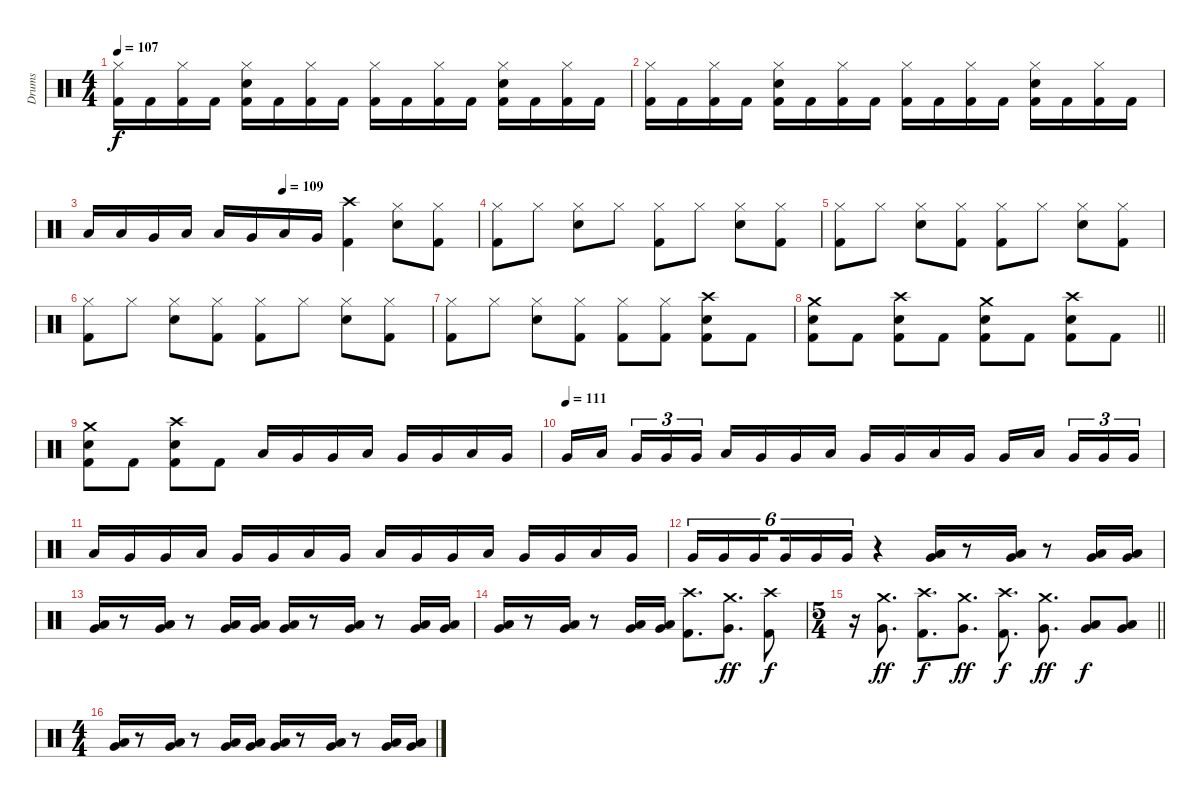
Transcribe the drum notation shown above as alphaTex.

\track ("Drums" "Drums") {instrument percussion}
\staff {score}
\articulation defaults
\ts (4 4)
\tempo 107
\clef neutral
\ks c
("Hi-Hat (closed)" "Kick (hit) 2").16{dy f} "Kick (hit) 2".16 ("Hi-Hat (closed)" "Kick (hit) 2").16 "Kick (hit) 2".16 ("Hi-Hat (closed)" "Snare (hit) 2" "Kick (hit) 2").16 "Kick (hit) 2".16 ("Hi-Hat (closed)" "Kick (hit) 2").16 "Kick (hit) 2".16 ("Hi-Hat (closed)" "Kick (hit) 2").16 "Kick (hit) 2".16 ("Hi-Hat (closed)" "Kick (hit) 2").16 "Kick (hit) 2".16 ("Hi-Hat (closed)" "Snare (hit) 2" "Kick (hit) 2").16 "Kick (hit) 2".16 ("Hi-Hat (closed)" "Kick (hit) 2").16 "Kick (hit) 2".16 |
("Hi-Hat (closed)" "Kick (hit) 2").16 "Kick (hit) 2".16 ("Hi-Hat (closed)" "Kick (hit) 2").16 "Kick (hit) 2".16 ("Hi-Hat (closed)" "Snare (hit) 2" "Kick (hit) 2").16 "Kick (hit) 2".16 ("Hi-Hat (closed)" "Kick (hit) 2").16 "Kick (hit) 2".16 ("Hi-Hat (closed)" "Kick (hit) 2").16 "Kick (hit) 2".16 ("Hi-Hat (closed)" "Kick (hit) 2").16 "Kick (hit) 2".16 ("Hi-Hat (closed)" "Snare (hit) 2" "Kick (hit) 2").16 "Kick (hit) 2".16 ("Hi-Hat (closed)" "Kick (hit) 2").16 "Kick (hit) 2".16 |
\tempo (109 0.5)
"Low Tom (hit)".16 "Low Tom (hit)".16 "Very Low Tom (hit)".16 "Low Tom (hit)".16 "Low Tom (hit)".16 "Very Low Tom (hit)".16 "Low Tom (hit)".16 "Very Low Tom (hit)".16 ("Crash high (hit)" "Kick (hit) 2").4 ("Hi-Hat (closed)" "Snare (hit) 2").8 ("Hi-Hat (closed)" "Kick (hit) 2").8 |
("Hi-Hat (closed)" "Kick (hit) 2").8 "Hi-Hat (closed)".8 ("Hi-Hat (closed)" "Snare (hit) 2").8 "Hi-Hat (closed)".8 ("Hi-Hat (closed)" "Kick (hit) 2").8 "Hi-Hat (closed)".8 ("Hi-Hat (closed)" "Snare (hit) 2").8 ("Hi-Hat (closed)" "Kick (hit) 2").8 |
("Hi-Hat (closed)" "Kick (hit) 2").8 "Hi-Hat (closed)".8 ("Hi-Hat (closed)" "Snare (hit) 2").8 ("Hi-Hat (closed)" "Kick (hit) 2").8 ("Hi-Hat (closed)" "Kick (hit) 2").8 "Hi-Hat (closed)".8 ("Hi-Hat (closed)" "Snare (hit) 2").8 ("Hi-Hat (closed)" "Kick (hit) 2").8 |
("Hi-Hat (closed)" "Kick (hit) 2").8 "Hi-Hat (closed)".8 ("Hi-Hat (closed)" "Snare (hit) 2").8 ("Hi-Hat (closed)" "Kick (hit) 2").8 ("Hi-Hat (closed)" "Kick (hit) 2").8 "Hi-Hat (closed)".8 ("Hi-Hat (closed)" "Snare (hit) 2").8 ("Hi-Hat (closed)" "Kick (hit) 2").8 |
("Hi-Hat (closed)" "Kick (hit) 2").8 "Hi-Hat (closed)".8 ("Hi-Hat (closed)" "Snare (hit) 2").8 ("Hi-Hat (closed)" "Kick (hit) 2").8 ("Hi-Hat (closed)" "Kick (hit) 2").8 ("Hi-Hat (closed)" "Kick (hit) 2").8 ("Crash high (hit)" "Snare (hit) 2" "Kick (hit) 2").8 "Kick (hit) 2".8 |
\barLineRight lightlight
("Crash medium (hit)" "Snare (hit) 2" "Kick (hit) 2").8 "Kick (hit) 2".8 ("Crash high (hit)" "Snare (hit) 2" "Kick (hit) 2").8 "Kick (hit) 2".8 ("Crash medium (hit)" "Snare (hit) 2" "Kick (hit) 2").8 "Kick (hit) 2".8 ("Crash high (hit)" "Snare (hit) 2" "Kick (hit) 2").8 "Kick (hit) 2".8 |
\section ("" "")
("Crash medium (hit)" "Snare (hit) 2" "Kick (hit) 2").8 "Kick (hit) 2".8 ("Crash high (hit)" "Snare (hit) 2" "Kick (hit) 2").8 "Kick (hit) 2".8 "Low Tom (hit)".16 "Very Low Tom (hit)".16 "Very Low Tom (hit)".16 "Low Tom (hit)".16 "Very Low Tom (hit)".16 "Very Low Tom (hit)".16 "Low Tom (hit)".16 "Very Low Tom (hit)".16 |
\tempo (111)
"Very Low Tom (hit)".16 "Low Tom (hit)".16{beam splitsecondary} "Very Low Tom (hit)".16{tu (3 2)} "Very Low Tom (hit)".16{tu (3 2)} "Very Low Tom (hit)".16{tu (3 2)} "Low Tom (hit)".16 "Very Low Tom (hit)".16 "Very Low Tom (hit)".16 "Low Tom (hit)".16 "Very Low Tom (hit)".16 "Very Low Tom (hit)".16 "Low Tom (hit)".16 "Very Low Tom (hit)".16 "Very Low Tom (hit)".16 "Low Tom (hit)".16{beam splitsecondary} "Very Low Tom (hit)".16{tu (3 2)} "Very Low Tom (hit)".16{tu (3 2)} "Very Low Tom (hit)".16{tu (3 2)} |
"Low Tom (hit)".16 "Very Low Tom (hit)".16 "Very Low Tom (hit)".16 "Low Tom (hit)".16 "Very Low Tom (hit)".16 "Very Low Tom (hit)".16 "Low Tom (hit)".16 "Very Low Tom (hit)".16 "Low Tom (hit)".16 "Very Low Tom (hit)".16 "Very Low Tom (hit)".16 "Low Tom (hit)".16 "Very Low Tom (hit)".16 "Very Low Tom (hit)".16 "Low Tom (hit)".16 "Very Low Tom (hit)".16 |
"Very Low Tom (hit)".16{tu (6 4)} "Very Low Tom (hit)".16{tu (6 4)} "Very Low Tom (hit)".16{tu (6 4) beam splitsecondary} "Very Low Tom (hit)".16{tu (6 4)} "Very Low Tom (hit)".16{tu (6 4)} "Very Low Tom (hit)".16{tu (6 4)} r.4 ("Low Tom (hit)" "Very Low Tom (hit)").16 r.8 ("Low Tom (hit)" "Very Low Tom (hit)").16 r.8 ("Low Tom (hit)" "Very Low Tom (hit)").16 ("Low Tom (hit)" "Very Low Tom (hit)").16 |
("Low Tom (hit)" "Very Low Tom (hit)").16 r.8 ("Low Tom (hit)" "Very Low Tom (hit)").16 r.8 ("Low Tom (hit)" "Very Low Tom (hit)").16 ("Low Tom (hit)" "Very Low Tom (hit)").16 ("Low Tom (hit)" "Very Low Tom (hit)").16 r.8 ("Low Tom (hit)" "Very Low Tom (hit)").16 r.8 ("Low Tom (hit)" "Very Low Tom (hit)").16 ("Low Tom (hit)" "Very Low Tom (hit)").16 |
("Low Tom (hit)" "Very Low Tom (hit)").16 r.8 ("Low Tom (hit)" "Very Low Tom (hit)").16 r.8 ("Low Tom (hit)" "Very Low Tom (hit)").16 ("Low Tom (hit)" "Very Low Tom (hit)").16 ("Crash high (hit)" "Kick (hit) 2").8{d} ("Crash medium (hit)" "Very Low Tom (hit)").8{d dy ff} ("Crash high (hit)" "Kick (hit) 2").8{dy f} |
\ts (5 4)
\barLineRight lightlight
r.16 ("Crash medium (hit)" "Very Low Tom (hit)").8{d dy ff} ("Crash high (hit)" "Kick (hit) 2").8{d dy f} ("Crash medium (hit)" "Very Low Tom (hit)").8{d dy ff} ("Crash high (hit)" "Kick (hit) 2").8{d dy f} ("Crash medium (hit)" "Very Low Tom (hit)").8{d dy ff} ("Low Tom (hit)" "Very Low Tom (hit)").8{dy f} ("Low Tom (hit)" "Very Low Tom (hit)").8 |
\ts (4 4)
\section ("" "")
("Low Tom (hit)" "Very Low Tom (hit)").16 r.8 ("Low Tom (hit)" "Very Low Tom (hit)").16 r.8 ("Low Tom (hit)" "Very Low Tom (hit)").16 ("Low Tom (hit)" "Very Low Tom (hit)").16 ("Low Tom (hit)" "Very Low Tom (hit)").16 r.8 ("Low Tom (hit)" "Very Low Tom (hit)").16 r.8 ("Low Tom (hit)" "Very Low Tom (hit)").16 ("Low Tom (hit)" "Very Low Tom (hit)").16
